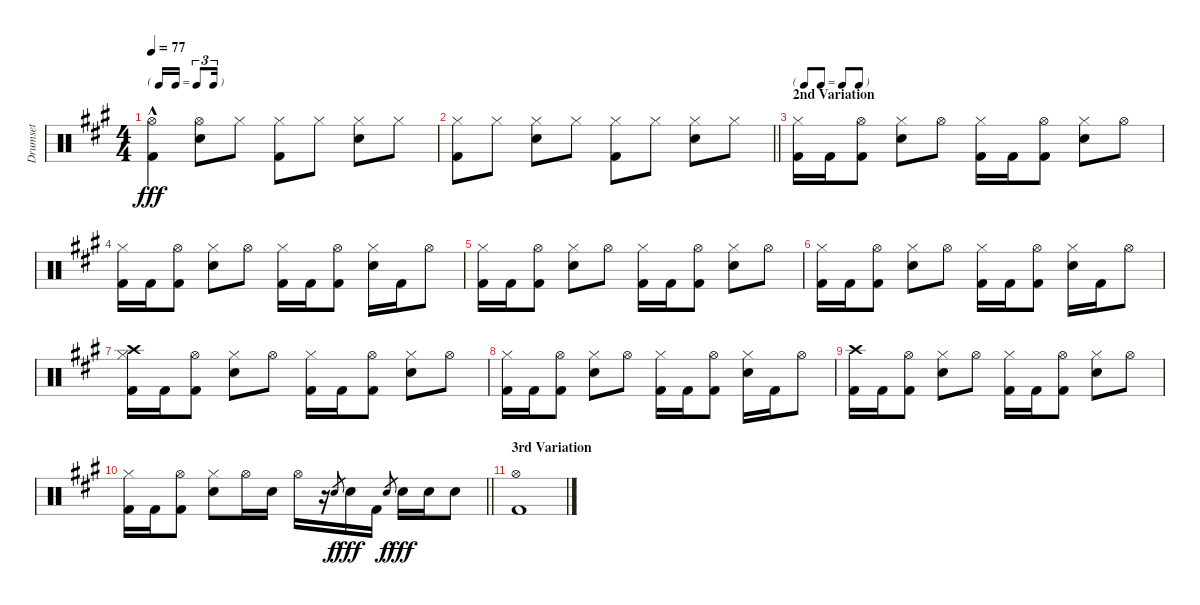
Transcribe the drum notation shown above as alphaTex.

\track ("Drumset" "Drumset") {instrument percussion}
\staff {score}
\articulation defaults
\ts (4 4)
\tf triplet16th
\tempo 77
\clef neutral
\ks a
("Hi-Hat (open)"{hac} "Kick (hit) 2").4{dy fff} ("Hi-Hat (open)" "Electric Snare (hit)").8 "Hi-Hat (closed)".8 ("Hi-Hat (closed)" "Kick (hit) 2").8 "Hi-Hat (closed)".8 ("Hi-Hat (closed)" "Electric Snare (hit)").8 "Hi-Hat (closed)".8 |
\barLineRight lightlight
("Hi-Hat (closed)" "Kick (hit) 2").8 "Hi-Hat (closed)".8 ("Hi-Hat (closed)" "Electric Snare (hit)").8 "Hi-Hat (closed)".8 ("Hi-Hat (closed)" "Kick (hit) 2").8 "Hi-Hat (closed)".8 ("Hi-Hat (closed)" "Electric Snare (hit)").8 "Hi-Hat (closed)".8 |
\tf none
\section ("" "2nd Variation")
("Hi-Hat (closed)" "Kick (hit) 2").16 "Kick (hit) 2".16 ("Hi-Hat (open)" "Kick (hit) 2").8 ("Hi-Hat (closed)" "Electric Snare (hit)").8 "Hi-Hat (open)".8 ("Hi-Hat (closed)" "Kick (hit) 2").16 "Kick (hit) 2".16 ("Hi-Hat (open)" "Kick (hit) 2").8 ("Hi-Hat (closed)" "Electric Snare (hit)").8 "Hi-Hat (open)".8 |
("Hi-Hat (closed)" "Kick (hit) 2").16 "Kick (hit) 2".16 ("Hi-Hat (open)" "Kick (hit) 2").8 ("Hi-Hat (closed)" "Electric Snare (hit)").8 "Hi-Hat (open)".8 ("Hi-Hat (closed)" "Kick (hit) 2").16 "Kick (hit) 2".16 ("Hi-Hat (open)" "Kick (hit) 2").8 ("Hi-Hat (closed)" "Electric Snare (hit)").16 "Kick (hit) 2".16 "Hi-Hat (open)".8 |
("Hi-Hat (closed)" "Kick (hit) 2").16 "Kick (hit) 2".16 ("Hi-Hat (open)" "Kick (hit) 2").8 ("Hi-Hat (closed)" "Electric Snare (hit)").8 "Hi-Hat (open)".8 ("Hi-Hat (closed)" "Kick (hit) 2").16 "Kick (hit) 2".16 ("Hi-Hat (open)" "Kick (hit) 2").8 ("Hi-Hat (closed)" "Electric Snare (hit)").8 "Hi-Hat (open)".8 |
("Hi-Hat (closed)" "Kick (hit) 2").16 "Kick (hit) 2".16 ("Hi-Hat (open)" "Kick (hit) 2").8 ("Hi-Hat (closed)" "Electric Snare (hit)").8 "Hi-Hat (open)".8 ("Hi-Hat (closed)" "Kick (hit) 2").16 "Kick (hit) 2".16 ("Hi-Hat (open)" "Kick (hit) 2").8 ("Hi-Hat (closed)" "Electric Snare (hit)").16 "Kick (hit) 2".16 "Hi-Hat (open)".8 |
("Hi-Hat (closed)" "Crash high (hit)" "Kick (hit) 2").16 "Kick (hit) 2".16 ("Hi-Hat (open)" "Kick (hit) 2").8 ("Hi-Hat (closed)" "Electric Snare (hit)").8 "Hi-Hat (open)".8 ("Hi-Hat (closed)" "Kick (hit) 2").16 "Kick (hit) 2".16 ("Hi-Hat (open)" "Kick (hit) 2").8 ("Hi-Hat (closed)" "Electric Snare (hit)").8 "Hi-Hat (open)".8 |
("Hi-Hat (closed)" "Kick (hit) 2").16 "Kick (hit) 2".16 ("Hi-Hat (open)" "Kick (hit) 2").8 ("Hi-Hat (closed)" "Electric Snare (hit)").8 "Hi-Hat (open)".8 ("Hi-Hat (closed)" "Kick (hit) 2").16 "Kick (hit) 2".16 ("Hi-Hat (open)" "Kick (hit) 2").8 ("Hi-Hat (closed)" "Electric Snare (hit)").16 "Kick (hit) 2".16 "Hi-Hat (open)".8 |
("Crash high (hit)" "Kick (hit) 2").16 "Kick (hit) 2".16 ("Hi-Hat (open)" "Kick (hit) 2").8 ("Hi-Hat (closed)" "Electric Snare (hit)").8 "Hi-Hat (open)".8 ("Hi-Hat (closed)" "Kick (hit) 2").16 "Kick (hit) 2".16 ("Hi-Hat (open)" "Kick (hit) 2").8 ("Hi-Hat (closed)" "Electric Snare (hit)").8 "Hi-Hat (open)".8 |
\barLineRight lightlight
("Hi-Hat (closed)" "Kick (hit) 2").16 "Kick (hit) 2".16 ("Hi-Hat (open)" "Kick (hit) 2").8 ("Hi-Hat (closed)" "Electric Snare (hit)").8 "Hi-Hat (open)".16 "Electric Snare (hit)".16 "Hi-Hat (open)".16 r.16 "Electric Snare (hit)".8{gr dy f} "Electric Snare (hit)".16{dy fff} "Kick (hit) 2".16 "Electric Snare (hit)".8{gr dy f} "Electric Snare (hit)".16{dy fff} "Electric Snare (hit)".16 "Electric Snare (hit)".8 |
\section ("" "3rd Variation")
("Hi-Hat (open)" "Kick (hit) 2").1
